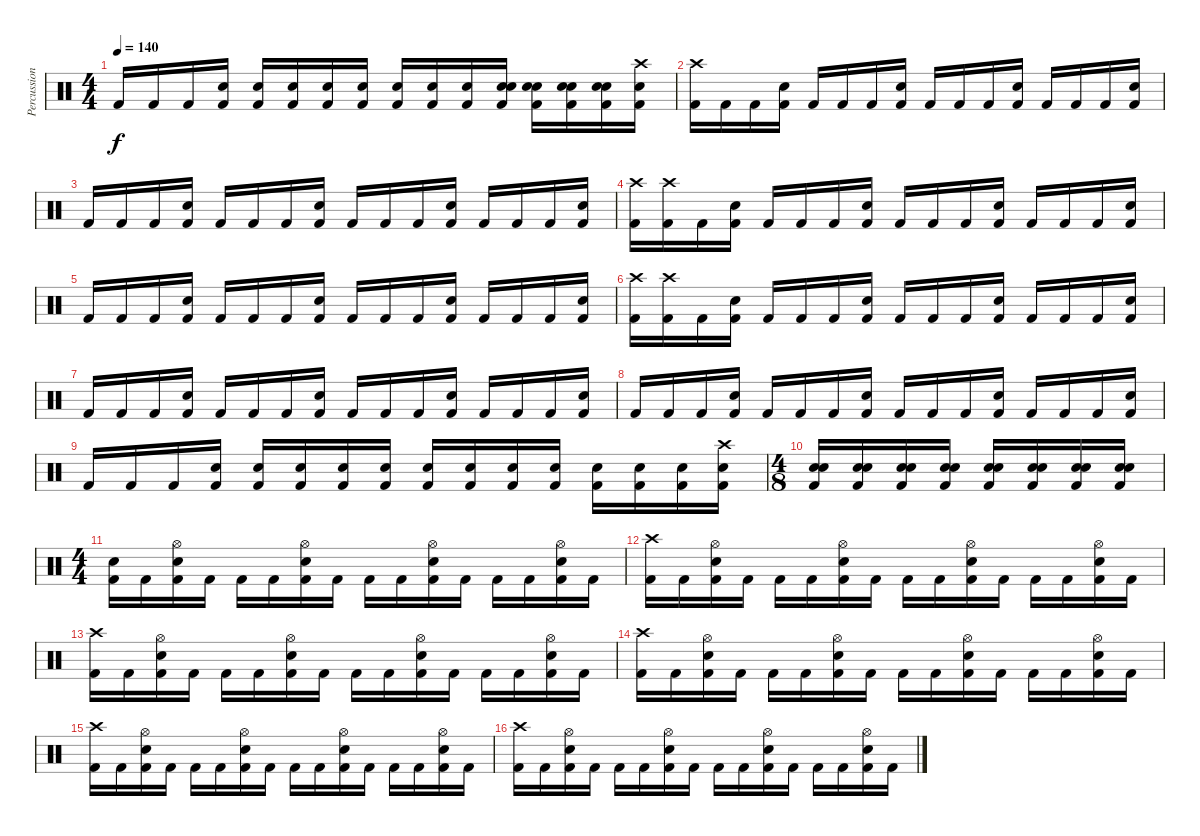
\track ("Percussion" "Percussion") {instrument percussion}
\staff {score}
\articulation defaults
\ts (4 4)
\tempo 140
\clef neutral
\ks c "Kick (hit) 2".16{dy f} "Kick (hit) 2".16 "Kick (hit) 2".16
("Snare (hit) 2" "Kick (hit) 2").16 ("Snare (hit) 2" "Kick (hit) 2").16 ("Snare (hit) 2" "Kick (hit) 2").16 ("Snare (hit) 2" "Kick (hit) 2").16 ("Snare (hit) 2" "Kick (hit) 2").16 ("Snare (hit) 2" "Kick (hit) 2").16 ("Snare (hit) 2" "Kick (hit) 2").16 ("Snare (hit) 2" "Kick (hit) 2").16 ("Electric Snare (hit)" "Snare (hit) 2" "Kick (hit) 2").16 ("Electric Snare (hit)" "Snare (hit) 2" "Kick (hit) 2").16 ("Electric Snare (hit)" "Snare (hit) 2" "Kick (hit) 2").16 ("Electric Snare (hit)" "Snare (hit) 2" "Kick (hit) 2").16 ("Crash high (hit)" "Snare (hit) 2" "Kick (hit) 2").16 |
("Crash high (hit)" "Kick (hit) 2").16 "Kick (hit) 2".16 "Kick (hit) 2".16 ("Snare (hit) 2" "Kick (hit) 2").16 "Kick (hit) 2".16 "Kick (hit) 2".16 "Kick (hit) 2".16 ("Snare (hit) 2" "Kick (hit) 2").16 "Kick (hit) 2".16 "Kick (hit) 2".16 "Kick (hit) 2".16 ("Snare (hit) 2" "Kick (hit) 2").16 "Kick (hit) 2".16 "Kick (hit) 2".16 "Kick (hit) 2".16 ("Snare (hit) 2" "Kick (hit) 2").16 |
"Kick (hit) 2".16 "Kick (hit) 2".16 "Kick (hit) 2".16 ("Snare (hit) 2" "Kick (hit) 2").16 "Kick (hit) 2".16 "Kick (hit) 2".16 "Kick (hit) 2".16 ("Snare (hit) 2" "Kick (hit) 2").16 "Kick (hit) 2".16 "Kick (hit) 2".16 "Kick (hit) 2".16 ("Snare (hit) 2" "Kick (hit) 2").16 "Kick (hit) 2".16 "Kick (hit) 2".16 "Kick (hit) 2".16 ("Snare (hit) 2" "Kick (hit) 2").16 |
("Crash high (hit)" "Kick (hit) 2").16 ("Crash high (hit)" "Kick (hit) 2").16 "Kick (hit) 2".16 ("Snare (hit) 2" "Kick (hit) 2").16 "Kick (hit) 2".16 "Kick (hit) 2".16 "Kick (hit) 2".16 ("Snare (hit) 2" "Kick (hit) 2").16 "Kick (hit) 2".16 "Kick (hit) 2".16 "Kick (hit) 2".16 ("Snare (hit) 2" "Kick (hit) 2").16 "Kick (hit) 2".16 "Kick (hit) 2".16 "Kick (hit) 2".16 ("Snare (hit) 2" "Kick (hit) 2").16 |
"Kick (hit) 2".16 "Kick (hit) 2".16 "Kick (hit) 2".16 ("Snare (hit) 2" "Kick (hit) 2").16 "Kick (hit) 2".16 "Kick (hit) 2".16 "Kick (hit) 2".16 ("Snare (hit) 2" "Kick (hit) 2").16 "Kick (hit) 2".16 "Kick (hit) 2".16 "Kick (hit) 2".16 ("Snare (hit) 2" "Kick (hit) 2").16 "Kick (hit) 2".16 "Kick (hit) 2".16 "Kick (hit) 2".16 ("Snare (hit) 2" "Kick (hit) 2").16 |
("Crash high (hit)" "Kick (hit) 2").16 ("Crash high (hit)" "Kick (hit) 2").16 "Kick (hit) 2".16 ("Snare (hit) 2" "Kick (hit) 2").16 "Kick (hit) 2".16 "Kick (hit) 2".16 "Kick (hit) 2".16 ("Snare (hit) 2" "Kick (hit) 2").16 "Kick (hit) 2".16 "Kick (hit) 2".16 "Kick (hit) 2".16 ("Snare (hit) 2" "Kick (hit) 2").16 "Kick (hit) 2".16 "Kick (hit) 2".16 "Kick (hit) 2".16 ("Snare (hit) 2" "Kick (hit) 2").16 |
"Kick (hit) 2".16 "Kick (hit) 2".16 "Kick (hit) 2".16 ("Snare (hit) 2" "Kick (hit) 2").16 "Kick (hit) 2".16 "Kick (hit) 2".16 "Kick (hit) 2".16 ("Snare (hit) 2" "Kick (hit) 2").16 "Kick (hit) 2".16 "Kick (hit) 2".16 "Kick (hit) 2".16 ("Snare (hit) 2" "Kick (hit) 2").16 "Kick (hit) 2".16 "Kick (hit) 2".16 "Kick (hit) 2".16 ("Snare (hit) 2" "Kick (hit) 2").16 |
"Kick (hit) 2".16 "Kick (hit) 2".16 "Kick (hit) 2".16 ("Snare (hit) 2" "Kick (hit) 2").16 "Kick (hit) 2".16 "Kick (hit) 2".16 "Kick (hit) 2".16 ("Snare (hit) 2" "Kick (hit) 2").16 "Kick (hit) 2".16 "Kick (hit) 2".16 "Kick (hit) 2".16 ("Snare (hit) 2" "Kick (hit) 2").16 "Kick (hit) 2".16 "Kick (hit) 2".16 "Kick (hit) 2".16 ("Snare (hit) 2" "Kick (hit) 2").16 |
"Kick (hit) 2".16 "Kick (hit) 2".16 "Kick (hit) 2".16 ("Electric Snare (hit)" "Kick (hit) 2").16 ("Electric Snare (hit)" "Kick (hit) 2").16 ("Electric Snare (hit)" "Kick (hit) 2").16 ("Electric Snare (hit)" "Kick (hit) 2").16 ("Electric Snare (hit)" "Kick (hit) 2").16 ("Electric Snare (hit)" "Kick (hit) 2").16 ("Electric Snare (hit)" "Kick (hit) 2").16 ("Electric Snare (hit)" "Kick (hit) 2").16 ("Electric Snare (hit)" "Kick (hit) 2").16 ("Electric Snare (hit)" "Kick (hit) 2").16 ("Electric Snare (hit)" "Kick (hit) 2").16 ("Electric Snare (hit)" "Kick (hit) 2").16 ("Crash high (hit)" "Electric Snare (hit)" "Kick (hit) 2").16 |
\ts (4 8)
("Electric Snare (hit)" "Snare (hit) 2" "Kick (hit) 2").16 ("Electric Snare (hit)" "Snare (hit) 2" "Kick (hit) 2").16 ("Electric Snare (hit)" "Snare (hit) 2" "Kick (hit) 2").16 ("Electric Snare (hit)" "Snare (hit) 2" "Kick (hit) 2").16 ("Electric Snare (hit)" "Snare (hit) 2" "Kick (hit) 2").16 ("Electric Snare (hit)" "Snare (hit) 2" "Kick (hit) 2").16 ("Electric Snare (hit)" "Snare (hit) 2" "Kick (hit) 2").16 ("Electric Snare (hit)" "Snare (hit) 2" "Kick (hit) 2").16 |
\ts (4 4)
("Electric Snare (hit)" "Kick (hit) 2").16 "Kick (hit) 2".16 ("Electric Snare (hit)" "Kick (hit) 2" "Hi-Hat (open)").16 "Kick (hit) 2".16 "Kick (hit) 2".16 "Kick (hit) 2".16 ("Electric Snare (hit)" "Kick (hit) 2" "Hi-Hat (open)").16 "Kick (hit) 2".16 "Kick (hit) 2".16 "Kick (hit) 2".16 ("Electric Snare (hit)" "Kick (hit) 2" "Hi-Hat (open)").16 "Kick (hit) 2".16 "Kick (hit) 2".16 "Kick (hit) 2".16 ("Hi-Hat (open)" "Electric Snare (hit)" "Kick (hit) 2").16 "Kick (hit) 2".16 |
("Crash high (hit)" "Kick (hit) 2").16 "Kick (hit) 2".16 ("Electric Snare (hit)" "Kick (hit) 2" "Hi-Hat (open)").16 "Kick (hit) 2".16 "Kick (hit) 2".16 "Kick (hit) 2".16 ("Electric Snare (hit)" "Kick (hit) 2" "Hi-Hat (open)").16 "Kick (hit) 2".16 "Kick (hit) 2".16 "Kick (hit) 2".16 ("Electric Snare (hit)" "Kick (hit) 2" "Hi-Hat (open)").16 "Kick (hit) 2".16 "Kick (hit) 2".16 "Kick (hit) 2".16 ("Hi-Hat (open)" "Electric Snare (hit)" "Kick (hit) 2").16 "Kick (hit) 2".16 |
("Crash high (hit)" "Kick (hit) 2").16 "Kick (hit) 2".16 ("Electric Snare (hit)" "Kick (hit) 2" "Hi-Hat (open)").16 "Kick (hit) 2".16 "Kick (hit) 2".16 "Kick (hit) 2".16 ("Electric Snare (hit)" "Kick (hit) 2" "Hi-Hat (open)").16 "Kick (hit) 2".16 "Kick (hit) 2".16 "Kick (hit) 2".16 ("Electric Snare (hit)" "Kick (hit) 2" "Hi-Hat (open)").16 "Kick (hit) 2".16 "Kick (hit) 2".16 "Kick (hit) 2".16 ("Hi-Hat (open)" "Electric Snare (hit)" "Kick (hit) 2").16 "Kick (hit) 2".16 |
("Crash high (hit)" "Kick (hit) 2").16 "Kick (hit) 2".16 ("Electric Snare (hit)" "Kick (hit) 2" "Hi-Hat (open)").16 "Kick (hit) 2".16 "Kick (hit) 2".16 "Kick (hit) 2".16 ("Electric Snare (hit)" "Kick (hit) 2" "Hi-Hat (open)").16 "Kick (hit) 2".16 "Kick (hit) 2".16 "Kick (hit) 2".16 ("Electric Snare (hit)" "Kick (hit) 2" "Hi-Hat (open)").16 "Kick (hit) 2".16 "Kick (hit) 2".16 "Kick (hit) 2".16 ("Hi-Hat (open)" "Electric Snare (hit)" "Kick (hit) 2").16 "Kick (hit) 2".16 |
("Crash high (hit)" "Kick (hit) 2").16 "Kick (hit) 2".16 ("Electric Snare (hit)" "Kick (hit) 2" "Hi-Hat (open)").16 "Kick (hit) 2".16 "Kick (hit) 2".16 "Kick (hit) 2".16 ("Electric Snare (hit)" "Kick (hit) 2" "Hi-Hat (open)").16 "Kick (hit) 2".16 "Kick (hit) 2".16 "Kick (hit) 2".16 ("Electric Snare (hit)" "Kick (hit) 2" "Hi-Hat (open)").16 "Kick (hit) 2".16 "Kick (hit) 2".16 "Kick (hit) 2".16 ("Hi-Hat (open)" "Electric Snare (hit)" "Kick (hit) 2").16 "Kick (hit) 2".16 |
("Crash high (hit)" "Kick (hit) 2").16 "Kick (hit) 2".16 ("Electric Snare (hit)" "Kick (hit) 2" "Hi-Hat (open)").16 "Kick (hit) 2".16 "Kick (hit) 2".16 "Kick (hit) 2".16 ("Electric Snare (hit)" "Kick (hit) 2" "Hi-Hat (open)").16 "Kick (hit) 2".16 "Kick (hit) 2".16 "Kick (hit) 2".16 ("Electric Snare (hit)" "Kick (hit) 2" "Hi-Hat (open)").16 "Kick (hit) 2".16 "Kick (hit) 2".16 "Kick (hit) 2".16 ("Hi-Hat (open)" "Electric Snare (hit)" "Kick (hit) 2").16 "Kick (hit) 2".16
